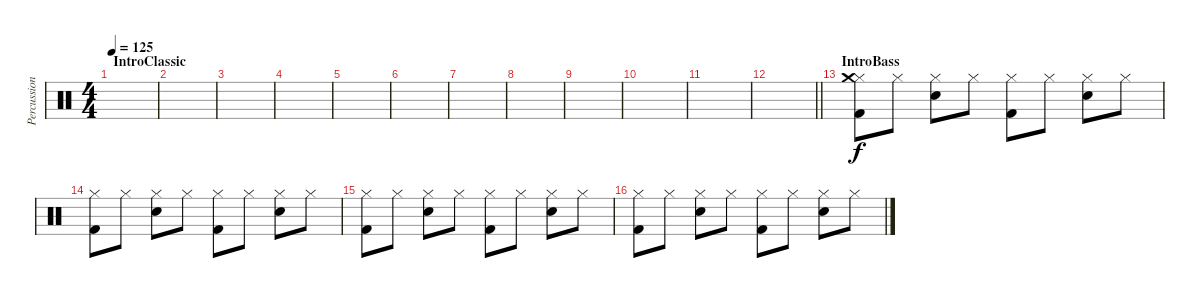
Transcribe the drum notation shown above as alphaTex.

\track ("Percussion" "Percussion") {instrument percussion}
\staff {score}
\articulation defaults
\ts (4 4)
\section ("" "IntroClassic")
\tempo 125
\clef neutral
\ks c
|
|
|
|
|
|
|
|
|
|
|
\barLineRight lightlight
|
\section ("" "IntroBass")
("Hi-Hat (closed)" "Kick (hit) 2" "Crash medium (hit)").8 "Hi-Hat (closed)".8 ("Hi-Hat (closed)" "Electric Snare (hit)").8 "Hi-Hat (closed)".8 ("Hi-Hat (closed)" "Kick (hit) 2").8 "Hi-Hat (closed)".8 ("Hi-Hat (closed)" "Electric Snare (hit)").8 "Hi-Hat (closed)".8 |
("Hi-Hat (closed)" "Kick (hit) 2").8 "Hi-Hat (closed)".8 ("Hi-Hat (closed)" "Electric Snare (hit)").8 "Hi-Hat (closed)".8 ("Hi-Hat (closed)" "Kick (hit) 2").8 "Hi-Hat (closed)".8 ("Hi-Hat (closed)" "Electric Snare (hit)").8 "Hi-Hat (closed)".8 |
("Hi-Hat (closed)" "Kick (hit) 2").8 "Hi-Hat (closed)".8 ("Hi-Hat (closed)" "Electric Snare (hit)").8 "Hi-Hat (closed)".8 ("Hi-Hat (closed)" "Kick (hit) 2").8 "Hi-Hat (closed)".8 ("Hi-Hat (closed)" "Electric Snare (hit)").8 "Hi-Hat (closed)".8 |
("Hi-Hat (closed)" "Kick (hit) 2").8 "Hi-Hat (closed)".8 ("Hi-Hat (closed)" "Electric Snare (hit)").8 "Hi-Hat (closed)".8 ("Hi-Hat (closed)" "Kick (hit) 2").8 "Hi-Hat (closed)".8 ("Hi-Hat (closed)" "Electric Snare (hit)").8 "Hi-Hat (closed)".8
